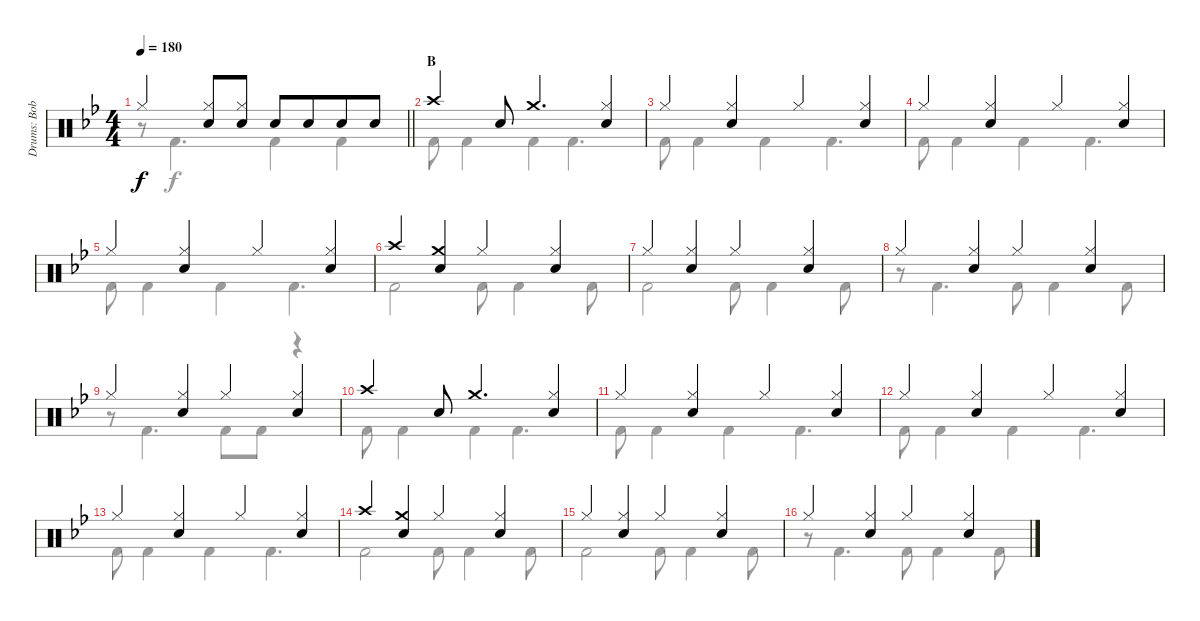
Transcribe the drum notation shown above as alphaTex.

\track ("Drums: Bobby" "Drums: Bob") {instrument percussion}
\staff {score}
\articulation defaults
\voice
\ts (4 4)
\tempo 180
\clef neutral
\barLineRight lightlight
\ks bb "Hi-Hat (closed)".4{dy f}
("Hi-Hat (closed)" "Snare (hit) 2").8 ("Hi-Hat (closed)" "Snare (hit) 2").8 "Snare (hit) 2".8 "Snare (hit) 2".8{beam merge} "Snare (hit) 2".8 "Snare (hit) 2".8 |
\section ("" "B")
"Crash high (hit)".4 "Snare (hit) 2".8 "Crash medium (hit)".4{d} ("Hi-Hat (closed)" "Snare (hit) 2").4 |
"Hi-Hat (closed)".4 ("Hi-Hat (closed)" "Snare (hit) 2").4 "Hi-Hat (closed)".4 ("Hi-Hat (closed)" "Snare (hit) 2").4 |
"Hi-Hat (closed)".4 ("Hi-Hat (closed)" "Snare (hit) 2").4 "Hi-Hat (closed)".4 ("Hi-Hat (closed)" "Snare (hit) 2").4 |
"Hi-Hat (closed)".4 ("Hi-Hat (closed)" "Snare (hit) 2").4 "Hi-Hat (closed)".4 ("Hi-Hat (closed)" "Snare (hit) 2").4 |
"Crash high (hit)".4 ("Crash medium (hit)" "Snare (hit) 2").4 "Hi-Hat (closed)".4 ("Hi-Hat (closed)" "Snare (hit) 2").4 |
"Hi-Hat (closed)".4 ("Hi-Hat (closed)" "Snare (hit) 2").4 "Hi-Hat (closed)".4 ("Hi-Hat (closed)" "Snare (hit) 2").4 |
"Hi-Hat (closed)".4 ("Hi-Hat (closed)" "Snare (hit) 2").4 "Hi-Hat (closed)".4 ("Hi-Hat (closed)" "Snare (hit) 2").4 |
"Hi-Hat (closed)".4 ("Hi-Hat (closed)" "Snare (hit) 2").4 "Hi-Hat (closed)".4 ("Hi-Hat (closed)" "Snare (hit) 2").4 |
"Crash high (hit)".4 "Snare (hit) 2".8 "Crash medium (hit)".4{d} ("Hi-Hat (closed)" "Snare (hit) 2").4 |
"Hi-Hat (closed)".4 ("Hi-Hat (closed)" "Snare (hit) 2").4 "Hi-Hat (closed)".4 ("Hi-Hat (closed)" "Snare (hit) 2").4 |
"Hi-Hat (closed)".4 ("Hi-Hat (closed)" "Snare (hit) 2").4 "Hi-Hat (closed)".4 ("Hi-Hat (closed)" "Snare (hit) 2").4 |
"Hi-Hat (closed)".4 ("Hi-Hat (closed)" "Snare (hit) 2").4 "Hi-Hat (closed)".4 ("Hi-Hat (closed)" "Snare (hit) 2").4 |
"Crash high (hit)".4 ("Crash medium (hit)" "Snare (hit) 2").4 "Hi-Hat (closed)".4 ("Hi-Hat (closed)" "Snare (hit) 2").4 |
"Hi-Hat (closed)".4 ("Hi-Hat (closed)" "Snare (hit) 2").4 "Hi-Hat (closed)".4 ("Hi-Hat (closed)" "Snare (hit) 2").4 |
"Hi-Hat (closed)".4 ("Hi-Hat (closed)" "Snare (hit) 2").4 "Hi-Hat (closed)".4 ("Hi-Hat (closed)" "Snare (hit) 2").4
\voice
\clef neutral
\ottava regular
\simile none
\barLineRight lightlight
\ks bb
r.8{dy f} "Kick (hit) 2".4{d} "Kick (hit) 2".4 "Kick (hit) 2".4 |
"Kick (hit) 2".8 "Kick (hit) 2".4 "Kick (hit) 2".4 "Kick (hit) 2".4{d} |
"Kick (hit) 2".8 "Kick (hit) 2".4 "Kick (hit) 2".4 "Kick (hit) 2".4{d} |
"Kick (hit) 2".8 "Kick (hit) 2".4 "Kick (hit) 2".4 "Kick (hit) 2".4{d} |
"Kick (hit) 2".8 "Kick (hit) 2".4 "Kick (hit) 2".4 "Kick (hit) 2".4{d} |
"Kick (hit) 2".2 "Kick (hit) 2".8 "Kick (hit) 2".4 "Kick (hit) 2".8 |
"Kick (hit) 2".2 "Kick (hit) 2".8 "Kick (hit) 2".4 "Kick (hit) 2".8 |
r.8 "Kick (hit) 2".4{d} "Kick (hit) 2".8 "Kick (hit) 2".4 "Kick (hit) 2".8 |
r.8 "Kick (hit) 2".4{d} "Kick (hit) 2".8 "Kick (hit) 2".8 r.4 |
"Kick (hit) 2".8 "Kick (hit) 2".4 "Kick (hit) 2".4 "Kick (hit) 2".4{d} |
"Kick (hit) 2".8 "Kick (hit) 2".4 "Kick (hit) 2".4 "Kick (hit) 2".4{d} |
"Kick (hit) 2".8 "Kick (hit) 2".4 "Kick (hit) 2".4 "Kick (hit) 2".4{d} |
"Kick (hit) 2".8 "Kick (hit) 2".4 "Kick (hit) 2".4 "Kick (hit) 2".4{d} |
"Kick (hit) 2".2 "Kick (hit) 2".8 "Kick (hit) 2".4 "Kick (hit) 2".8 |
"Kick (hit) 2".2 "Kick (hit) 2".8 "Kick (hit) 2".4 "Kick (hit) 2".8 |
r.8 "Kick (hit) 2".4{d} "Kick (hit) 2".8 "Kick (hit) 2".4 "Kick (hit) 2".8
